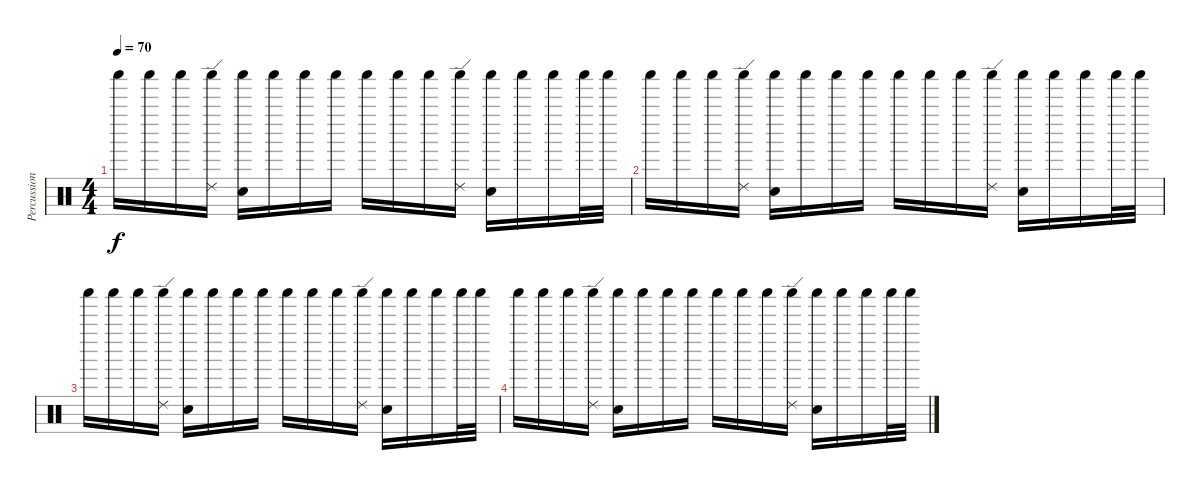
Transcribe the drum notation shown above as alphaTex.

\track ("Percussion" "Percussion") {instrument percussion}
\staff {score}
\articulation defaults
\ts (4 4)
\tempo 70
\clef neutral
\ks c "Shaker (hit)".16{dy f} "Shaker (hit)".16 "Shaker (hit)".16
("Shaker (hit)" "Ride (edge) 2").16 ("Shaker (hit)" "Hand Clap (hit)").16 "Shaker (hit)".16 "Shaker (hit)".16 "Shaker (hit)".16 "Shaker (hit)".16 "Shaker (hit)".16 "Shaker (hit)".16 ("Shaker (hit)" "Ride (edge) 2").16 ("Shaker (hit)" "Hand Clap (hit)").16 "Shaker (hit)".16 "Shaker (hit)".16 "Shaker (hit)".32 "Shaker (hit)".32 |
"Shaker (hit)".16 "Shaker (hit)".16 "Shaker (hit)".16 ("Shaker (hit)" "Ride (edge) 2").16 ("Shaker (hit)" "Hand Clap (hit)").16 "Shaker (hit)".16 "Shaker (hit)".16 "Shaker (hit)".16 "Shaker (hit)".16 "Shaker (hit)".16 "Shaker (hit)".16 ("Shaker (hit)" "Ride (edge) 2").16 ("Shaker (hit)" "Hand Clap (hit)").16 "Shaker (hit)".16 "Shaker (hit)".16 "Shaker (hit)".32 "Shaker (hit)".32 |
"Shaker (hit)".16 "Shaker (hit)".16 "Shaker (hit)".16 ("Shaker (hit)" "Ride (edge) 2").16 ("Shaker (hit)" "Hand Clap (hit)").16 "Shaker (hit)".16 "Shaker (hit)".16 "Shaker (hit)".16 "Shaker (hit)".16 "Shaker (hit)".16 "Shaker (hit)".16 ("Shaker (hit)" "Ride (edge) 2").16 ("Shaker (hit)" "Hand Clap (hit)").16 "Shaker (hit)".16 "Shaker (hit)".16 "Shaker (hit)".32 "Shaker (hit)".32 |
"Shaker (hit)".16 "Shaker (hit)".16 "Shaker (hit)".16 ("Shaker (hit)" "Ride (edge) 2").16 ("Shaker (hit)" "Hand Clap (hit)").16 "Shaker (hit)".16 "Shaker (hit)".16 "Shaker (hit)".16 "Shaker (hit)".16 "Shaker (hit)".16 "Shaker (hit)".16 ("Shaker (hit)" "Ride (edge) 2").16 ("Shaker (hit)" "Hand Clap (hit)").16 "Shaker (hit)".16 "Shaker (hit)".16 "Shaker (hit)".32 "Shaker (hit)".32
